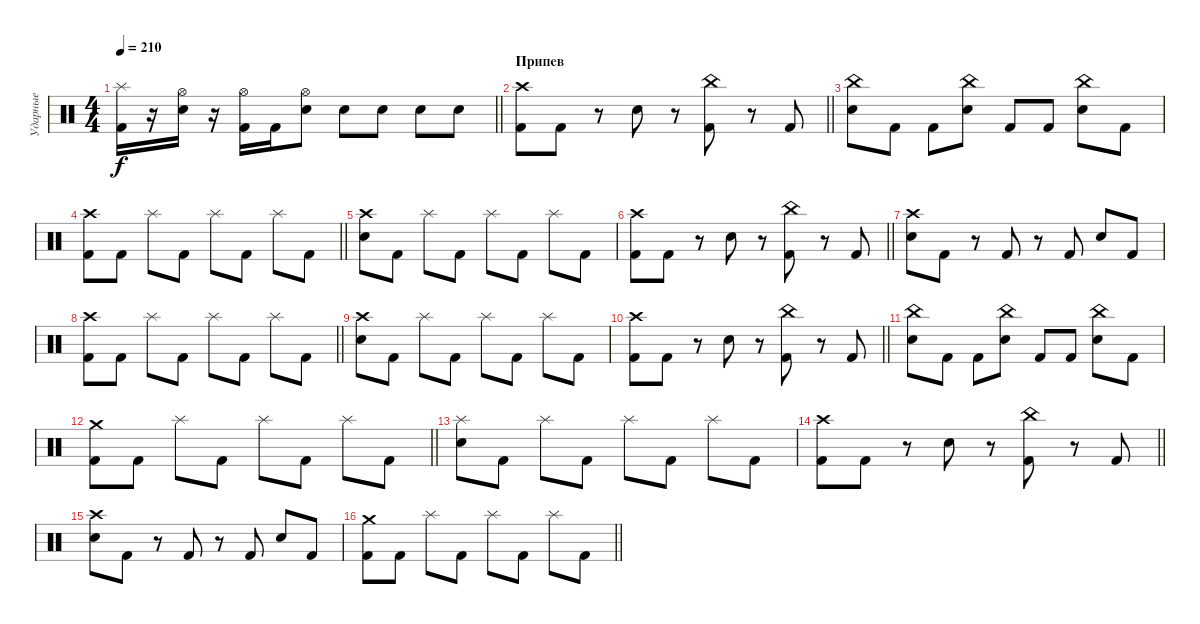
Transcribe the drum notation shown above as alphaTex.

\track ("Ударные" "Ударные") {mute instrument percussion}
\staff {score}
\articulation defaults
\ts (4 4)
\tempo 210
\clef neutral
\barLineRight lightlight
\ks c
("Splash (hit)" "Kick (hit) 2").16{dy f} r.16 ("Hi-Hat (open)" "Electric Snare (hit)").16 r.16 ("Hi-Hat (open)" "Kick (hit) 2").16 "Kick (hit) 2".16 ("Hi-Hat (open)" "Electric Snare (hit)").8 "Electric Snare (hit)".8 "Electric Snare (hit)".8 "Electric Snare (hit)".8 "Electric Snare (hit)".8 |
\section ("" "Припев")
\barLineRight lightlight
("Crash high (hit)" "Kick (hit) 2").8 "Kick (hit) 2".8 r.8 "Electric Snare (hit)".8 r.8 ("China (hit)" "Kick (hit) 2").8 r.8 "Kick (hit) 2".8 |
("China (hit)" "Electric Snare (hit)").8 "Kick (hit) 2".8 "Kick (hit) 2".8 ("China (hit)" "Electric Snare (hit)").8 "Kick (hit) 2".8 "Kick (hit) 2".8 ("China (hit)" "Electric Snare (hit)").8 "Kick (hit) 2".8 |
\barLineRight lightlight
("Crash high (hit)" "Kick (hit) 2").8 "Kick (hit) 2".8 "Splash (hit)".8 "Kick (hit) 2".8 "Splash (hit)".8 "Kick (hit) 2".8 "Splash (hit)".8 "Kick (hit) 2".8 |
("Crash high (hit)" "Electric Snare (hit)").8 "Kick (hit) 2".8 "Splash (hit)".8 "Kick (hit) 2".8 "Splash (hit)".8 "Kick (hit) 2".8 "Splash (hit)".8 "Kick (hit) 2".8 |
\barLineRight lightlight
("Crash high (hit)" "Kick (hit) 2").8 "Kick (hit) 2".8 r.8 "Electric Snare (hit)".8 r.8 ("China (hit)" "Kick (hit) 2").8 r.8 "Kick (hit) 2".8 |
("Crash high (hit)" "Electric Snare (hit)").8 "Kick (hit) 2".8 r.8 "Kick (hit) 2".8 r.8 "Kick (hit) 2".8 "Electric Snare (hit)".8 "Kick (hit) 2".8 |
\barLineRight lightlight
("Crash high (hit)" "Kick (hit) 2").8 "Kick (hit) 2".8 "Splash (hit)".8 "Kick (hit) 2".8 "Splash (hit)".8 "Kick (hit) 2".8 "Splash (hit)".8 "Kick (hit) 2".8 |
("Crash high (hit)" "Electric Snare (hit)").8 "Kick (hit) 2".8 "Splash (hit)".8 "Kick (hit) 2".8 "Splash (hit)".8 "Kick (hit) 2".8 "Splash (hit)".8 "Kick (hit) 2".8 |
\barLineRight lightlight
("Crash high (hit)" "Kick (hit) 2").8 "Kick (hit) 2".8 r.8 "Electric Snare (hit)".8 r.8 ("China (hit)" "Kick (hit) 2").8 r.8 "Kick (hit) 2".8 |
("China (hit)" "Electric Snare (hit)").8 "Kick (hit) 2".8 "Kick (hit) 2".8 ("China (hit)" "Electric Snare (hit)").8 "Kick (hit) 2".8 "Kick (hit) 2".8 ("China (hit)" "Electric Snare (hit)").8 "Kick (hit) 2".8 |
\barLineRight lightlight
("Crash medium (hit)" "Kick (hit) 2").8 "Kick (hit) 2".8 "Splash (hit)".8 "Kick (hit) 2".8 "Splash (hit)".8 "Kick (hit) 2".8 "Splash (hit)".8 "Kick (hit) 2".8 |
("Splash (hit)" "Electric Snare (hit)").8 "Kick (hit) 2".8 "Splash (hit)".8 "Kick (hit) 2".8 "Splash (hit)".8 "Kick (hit) 2".8 "Splash (hit)".8 "Kick (hit) 2".8 |
\barLineRight lightlight
("Crash high (hit)" "Kick (hit) 2").8 "Kick (hit) 2".8 r.8 "Electric Snare (hit)".8 r.8 ("China (hit)" "Kick (hit) 2").8 r.8 "Kick (hit) 2".8 |
("Crash high (hit)" "Electric Snare (hit)").8 "Kick (hit) 2".8 r.8 "Kick (hit) 2".8 r.8 "Kick (hit) 2".8 "Electric Snare (hit)".8 "Kick (hit) 2".8 |
\barLineRight lightlight
("Crash medium (hit)" "Kick (hit) 2").8 "Kick (hit) 2".8 "Splash (hit)".8 "Kick (hit) 2".8 "Splash (hit)".8 "Kick (hit) 2".8 "Splash (hit)".8 "Kick (hit) 2".8
